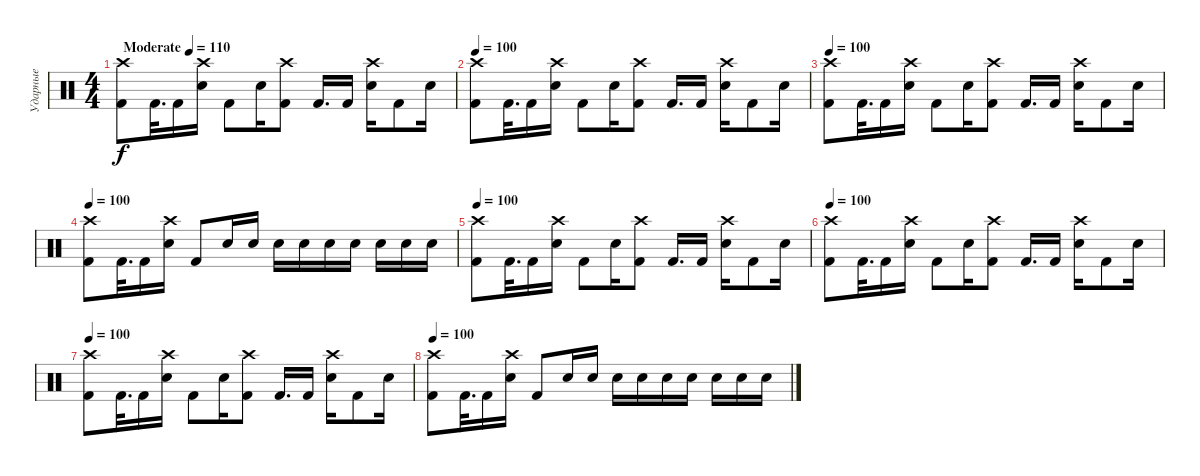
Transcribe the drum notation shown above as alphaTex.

\track ("Ударные" "Ударные") {instrument percussion}
\staff {score}
\articulation defaults
\ts (4 4)
\tempo (110 "Moderate")
\tempo 100
\tempo (110 "Moderate")
\clef neutral
\ks c
("Kick (hit) 2" "Crash high (hit)").8{dy f} "Kick (hit) 2".32{d} "Kick (hit) 2".16 ("Snare (hit) 2" "Crash high (hit)").16 "Kick (hit) 2".8 "Snare (hit) 2".16 ("Kick (hit) 2" "Crash high (hit)").8 "Kick (hit) 2".16{d} "Kick (hit) 2".16 ("Snare (hit) 2" "Crash high (hit)").16 "Kick (hit) 2".8 "Snare (hit) 2".16 |
\tempo 100
("Kick (hit) 2" "Crash high (hit)").8 "Kick (hit) 2".32{d} "Kick (hit) 2".16 ("Snare (hit) 2" "Crash high (hit)").16 "Kick (hit) 2".8 "Snare (hit) 2".16 ("Kick (hit) 2" "Crash high (hit)").8 "Kick (hit) 2".16{d} "Kick (hit) 2".16 ("Snare (hit) 2" "Crash high (hit)").16 "Kick (hit) 2".8 "Snare (hit) 2".16 |
\tempo 100
("Kick (hit) 2" "Crash high (hit)").8 "Kick (hit) 2".32{d} "Kick (hit) 2".16 ("Snare (hit) 2" "Crash high (hit)").16 "Kick (hit) 2".8 "Snare (hit) 2".16 ("Kick (hit) 2" "Crash high (hit)").8 "Kick (hit) 2".16{d} "Kick (hit) 2".16 ("Snare (hit) 2" "Crash high (hit)").16 "Kick (hit) 2".8 "Snare (hit) 2".16 |
\tempo 100
("Kick (hit) 2" "Crash high (hit)").8 "Kick (hit) 2".32{d} "Kick (hit) 2".16 ("Snare (hit) 2" "Crash high (hit)").16 "Kick (hit) 2".8 "Snare (hit) 2".16 "Snare (hit) 2".16 "Snare (hit) 2".16 "Snare (hit) 2".16 "Snare (hit) 2".16 "Snare (hit) 2".16 "Snare (hit) 2".16 "Snare (hit) 2".16 "Snare (hit) 2".16 |
\tempo 100
("Kick (hit) 2" "Crash high (hit)").8 "Kick (hit) 2".32{d} "Kick (hit) 2".16 ("Snare (hit) 2" "Crash high (hit)").16 "Kick (hit) 2".8 "Snare (hit) 2".16 ("Kick (hit) 2" "Crash high (hit)").8 "Kick (hit) 2".16{d} "Kick (hit) 2".16 ("Snare (hit) 2" "Crash high (hit)").16 "Kick (hit) 2".8 "Snare (hit) 2".16 |
\tempo 100
("Kick (hit) 2" "Crash high (hit)").8 "Kick (hit) 2".32{d} "Kick (hit) 2".16 ("Snare (hit) 2" "Crash high (hit)").16 "Kick (hit) 2".8 "Snare (hit) 2".16 ("Kick (hit) 2" "Crash high (hit)").8 "Kick (hit) 2".16{d} "Kick (hit) 2".16 ("Snare (hit) 2" "Crash high (hit)").16 "Kick (hit) 2".8 "Snare (hit) 2".16 |
\tempo 100
("Kick (hit) 2" "Crash high (hit)").8 "Kick (hit) 2".32{d} "Kick (hit) 2".16 ("Snare (hit) 2" "Crash high (hit)").16 "Kick (hit) 2".8 "Snare (hit) 2".16 ("Kick (hit) 2" "Crash high (hit)").8 "Kick (hit) 2".16{d} "Kick (hit) 2".16 ("Snare (hit) 2" "Crash high (hit)").16 "Kick (hit) 2".8 "Snare (hit) 2".16 |
\tempo 100
("Kick (hit) 2" "Crash high (hit)").8 "Kick (hit) 2".32{d} "Kick (hit) 2".16 ("Snare (hit) 2" "Crash high (hit)").16 "Kick (hit) 2".8 "Snare (hit) 2".16 "Snare (hit) 2".16 "Snare (hit) 2".16 "Snare (hit) 2".16 "Snare (hit) 2".16 "Snare (hit) 2".16 "Snare (hit) 2".16 "Snare (hit) 2".16 "Snare (hit) 2".16
